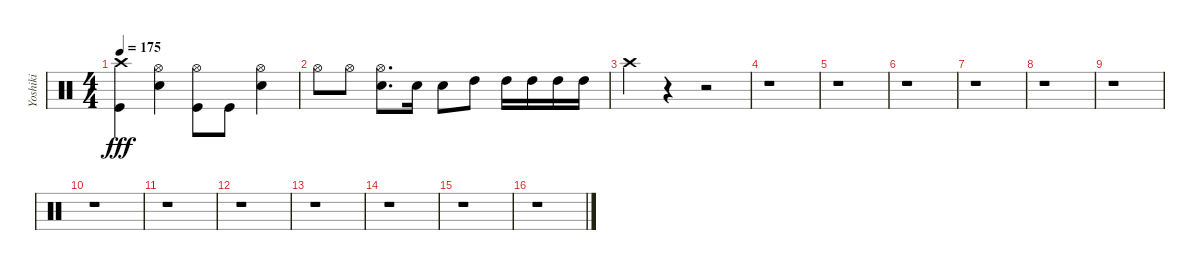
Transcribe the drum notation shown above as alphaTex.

\track ("Yoshiki" "Yoshiki") {instrument percussion}
\staff {score}
\articulation defaults
\ts (4 4)
\tempo 175
\clef neutral
\ks c
("Crash high (hit)" "Kick (hit)").4{dy fff} ("Hi-Hat (open)" "Snare (hit) 2").4 ("Hi-Hat (open)" "Kick (hit)").8 "Kick (hit)".8 ("Hi-Hat (open)" "Snare (hit) 2").4 |
"Hi-Hat (open)".8 "Hi-Hat (open)".8 ("Hi-Hat (open)" "Snare (hit) 2").8{d} "Snare (hit) 2".16 "Snare (hit) 2".8 "High Tom (hit)".8 "High Tom (hit)".16 "High Tom (hit)".16 "High Tom (hit)".16 "High Tom (hit)".16 |
"Crash high (hit)".4 r.4 r.2 |
r.1 |
r.1 |
r.1 |
r.1 |
r.1 |
r.1 |
r.1 |
r.1 |
r.1 |
r.1 |
r.1 |
r.1 |
r.1
